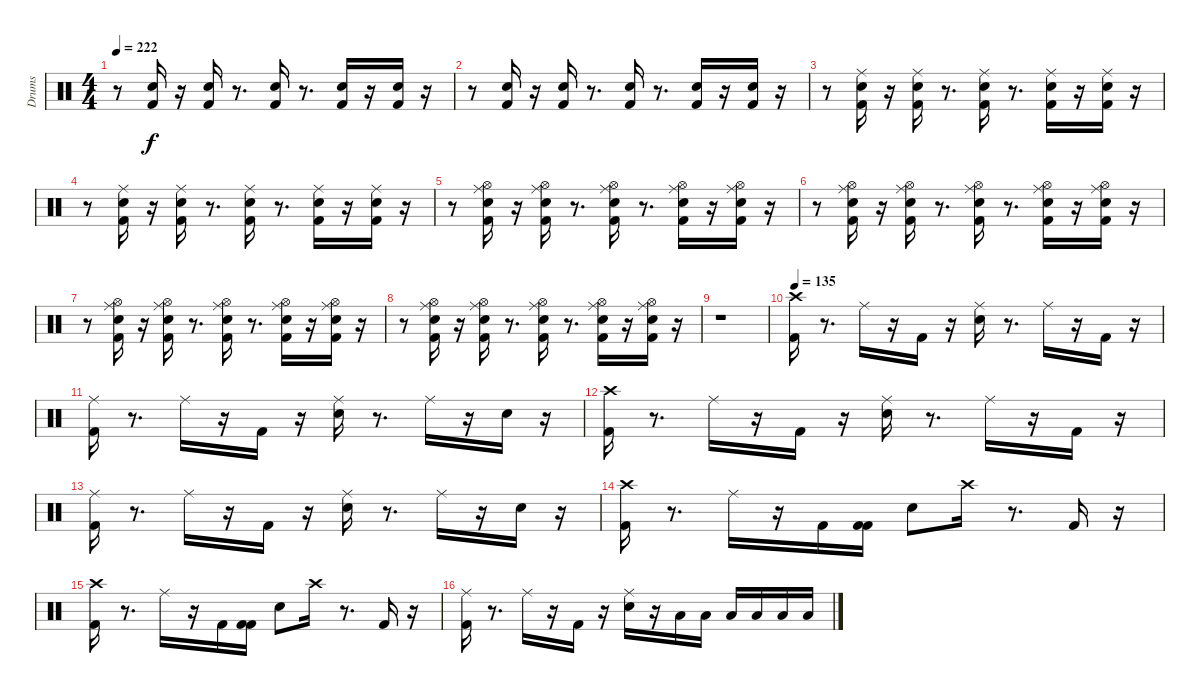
\track ("Drums" "Drums") {instrument percussion}
\staff {score}
\articulation defaults
\ts (4 4)
\tempo 222
\clef neutral
\ks c
r.8{dy f} ("Kick (hit) 2" "Snare (hit) 2").16 r.16 ("Kick (hit) 2" "Snare (hit) 2").16 r.8{d} ("Kick (hit) 2" "Snare (hit) 2").16 r.8{d} ("Kick (hit) 2" "Snare (hit) 2").16 r.16 ("Kick (hit) 2" "Snare (hit) 2").16 r.16 |
r.8 ("Kick (hit) 2" "Snare (hit) 2").16 r.16 ("Kick (hit) 2" "Snare (hit) 2").16 r.8{d} ("Kick (hit) 2" "Snare (hit) 2").16 r.8{d} ("Kick (hit) 2" "Snare (hit) 2").16 r.16 ("Kick (hit) 2" "Snare (hit) 2").16 r.16 |
r.8 ("Kick (hit) 2" "Snare (hit) 2" "Ride (middle)").16 r.16 ("Kick (hit) 2" "Snare (hit) 2" "Ride (middle)").16 r.8{d} ("Kick (hit) 2" "Snare (hit) 2" "Ride (middle)").16 r.8{d} ("Kick (hit) 2" "Snare (hit) 2" "Ride (middle)").16 r.16 ("Kick (hit) 2" "Snare (hit) 2" "Ride (middle)").16 r.16 |
r.8 ("Kick (hit) 2" "Snare (hit) 2" "Ride (middle)").16 r.16 ("Kick (hit) 2" "Snare (hit) 2" "Ride (middle)").16 r.8{d} ("Kick (hit) 2" "Snare (hit) 2" "Ride (middle)").16 r.8{d} ("Kick (hit) 2" "Snare (hit) 2" "Ride (middle)").16 r.16 ("Kick (hit) 2" "Snare (hit) 2" "Ride (middle)").16 r.16 |
r.8 ("Kick (hit) 2" "Snare (hit) 2" "Hi-Hat (open)" "Ride (middle)").16 r.16 ("Kick (hit) 2" "Snare (hit) 2" "Hi-Hat (open)" "Ride (middle)").16 r.8{d} ("Kick (hit) 2" "Snare (hit) 2" "Hi-Hat (open)" "Ride (middle)").16 r.8{d} ("Kick (hit) 2" "Snare (hit) 2" "Hi-Hat (open)" "Ride (middle)").16 r.16 ("Kick (hit) 2" "Snare (hit) 2" "Hi-Hat (open)" "Ride (middle)").16 r.16 |
r.8 ("Kick (hit) 2" "Snare (hit) 2" "Hi-Hat (open)" "Ride (middle)").16 r.16 ("Kick (hit) 2" "Snare (hit) 2" "Hi-Hat (open)" "Ride (middle)").16 r.8{d} ("Kick (hit) 2" "Snare (hit) 2" "Hi-Hat (open)" "Ride (middle)").16 r.8{d} ("Kick (hit) 2" "Snare (hit) 2" "Hi-Hat (open)" "Ride (middle)").16 r.16 ("Kick (hit) 2" "Snare (hit) 2" "Hi-Hat (open)" "Ride (middle)").16 r.16 |
r.8 ("Kick (hit) 2" "Snare (hit) 2" "Hi-Hat (open)" "Ride (middle)").16 r.16 ("Kick (hit) 2" "Snare (hit) 2" "Hi-Hat (open)" "Ride (middle)").16 r.8{d} ("Kick (hit) 2" "Snare (hit) 2" "Hi-Hat (open)" "Ride (middle)").16 r.8{d} ("Kick (hit) 2" "Snare (hit) 2" "Hi-Hat (open)" "Ride (middle)").16 r.16 ("Kick (hit) 2" "Snare (hit) 2" "Hi-Hat (open)" "Ride (middle)").16 r.16 |
r.8 ("Kick (hit) 2" "Snare (hit) 2" "Hi-Hat (open)" "Ride (middle)").16 r.16 ("Kick (hit) 2" "Snare (hit) 2" "Hi-Hat (open)" "Ride (middle)").16 r.8{d} ("Kick (hit) 2" "Snare (hit) 2" "Hi-Hat (open)" "Ride (middle)").16 r.8{d} ("Kick (hit) 2" "Snare (hit) 2" "Hi-Hat (open)" "Ride (middle)").16 r.16 ("Kick (hit) 2" "Snare (hit) 2" "Hi-Hat (open)" "Ride (middle)").16 r.16 |
r.1 |
\tempo 135
("Kick (hit) 2" "Crash high (hit)").16 r.8{d} "Ride (middle)".16 r.16 "Kick (hit) 2".16 r.16 ("Snare (hit) 2" "Ride (middle)").16 r.8{d} "Ride (middle)".16 r.16 "Kick (hit) 2".16 r.16 |
("Kick (hit) 2" "Ride (middle)").16 r.8{d} "Ride (middle)".16 r.16 "Kick (hit) 2".16 r.16 ("Snare (hit) 2" "Ride (middle)").16 r.8{d} "Ride (middle)".16 r.16 "Snare (hit) 2".16 r.16 |
("Kick (hit) 2" "Crash high (hit)").16 r.8{d} "Ride (middle)".16 r.16 "Kick (hit) 2".16 r.16 ("Snare (hit) 2" "Ride (middle)").16 r.8{d} "Ride (middle)".16 r.16 "Kick (hit) 2".16 r.16 |
("Kick (hit) 2" "Ride (middle)").16 r.8{d} "Ride (middle)".16 r.16 "Kick (hit) 2".16 r.16 ("Snare (hit) 2" "Ride (middle)").16 r.8{d} "Ride (middle)".16 r.16 "Snare (hit) 2".16 r.16 |
("Kick (hit) 2" "Crash high (hit)").16 r.8{d} "Ride (middle)".16 r.16 "Kick (hit) 2".16 ("Kick (hit) 2" "Kick (hit) 2").16 "Snare (hit) 2".8 "Crash high (hit)".16 r.8{d} "Kick (hit) 2".16 r.16 |
("Kick (hit) 2" "Crash high (hit)").16 r.8{d} "Ride (middle)".16 r.16 "Kick (hit) 2".16 ("Kick (hit) 2" "Kick (hit) 2").16 "Snare (hit) 2".8 "Crash high (hit)".16 r.8{d} "Kick (hit) 2".16 r.16 |
("Kick (hit) 2" "Ride (middle)").16 r.8{d} "Ride (middle)".16 r.16 "Kick (hit) 2".16 r.16 ("Snare (hit) 2" "Ride (middle)").16 r.16 "Low Tom (hit)".16 "Low Tom (hit)".16 "Low Tom (hit)".16 "Low Floor Tom (hit)".16 "Low Floor Tom (hit)".16 "Low Floor Tom (hit)".16
